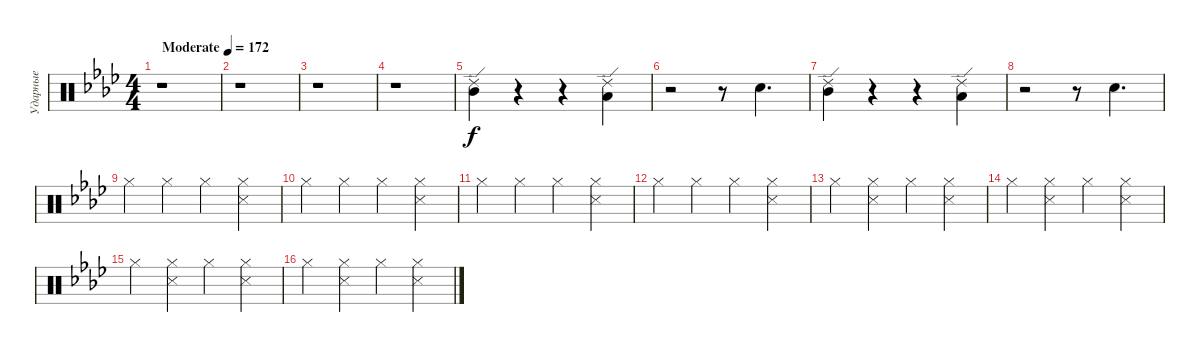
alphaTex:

\track ("Ударные" "Ударные") {instrument percussion}
\staff {score}
\articulation defaults
\ts (4 4)
\tempo (172 "Moderate")
\clef neutral
\ks ab
r.1{dy f} |
r.1 |
r.1 |
r.1 |
("Mid Tom (hit)" "Ride (edge) 2").4 r.4 r.4 ("Low Tom (hit)" "Ride (edge) 2").4 |
r.2 r.8 "Electric Snare (hit)".4{d} |
("Mid Tom (hit)" "Ride (edge) 2").4 r.4 r.4 ("Low Tom (hit)" "Ride (edge) 2").4 |
r.2 r.8 "Electric Snare (hit)".4{d} |
"Hi-Hat (closed)".4 "Hi-Hat (closed)".4 "Hi-Hat (closed)".4 ("Hi-Hat (closed)" "Snare (side stick) 3").4 |
"Hi-Hat (closed)".4 "Hi-Hat (closed)".4 "Hi-Hat (closed)".4 ("Hi-Hat (closed)" "Snare (side stick) 3").4 |
"Hi-Hat (closed)".4 "Hi-Hat (closed)".4 "Hi-Hat (closed)".4 ("Hi-Hat (closed)" "Snare (side stick) 3").4 |
"Hi-Hat (closed)".4 "Hi-Hat (closed)".4 "Hi-Hat (closed)".4 ("Hi-Hat (closed)" "Snare (side stick) 3").4 |
"Hi-Hat (closed)".4 ("Hi-Hat (closed)" "Snare (side stick) 3").4 "Hi-Hat (closed)".4 ("Hi-Hat (closed)" "Snare (side stick) 3").4 |
"Hi-Hat (closed)".4 ("Hi-Hat (closed)" "Snare (side stick) 3").4 "Hi-Hat (closed)".4 ("Hi-Hat (closed)" "Snare (side stick) 3").4 |
"Hi-Hat (closed)".4 ("Hi-Hat (closed)" "Snare (side stick) 3").4 "Hi-Hat (closed)".4 ("Hi-Hat (closed)" "Snare (side stick) 3").4 |
"Hi-Hat (closed)".4 ("Hi-Hat (closed)" "Snare (side stick) 3").4 "Hi-Hat (closed)".4 ("Hi-Hat (closed)" "Snare (side stick) 3").4
